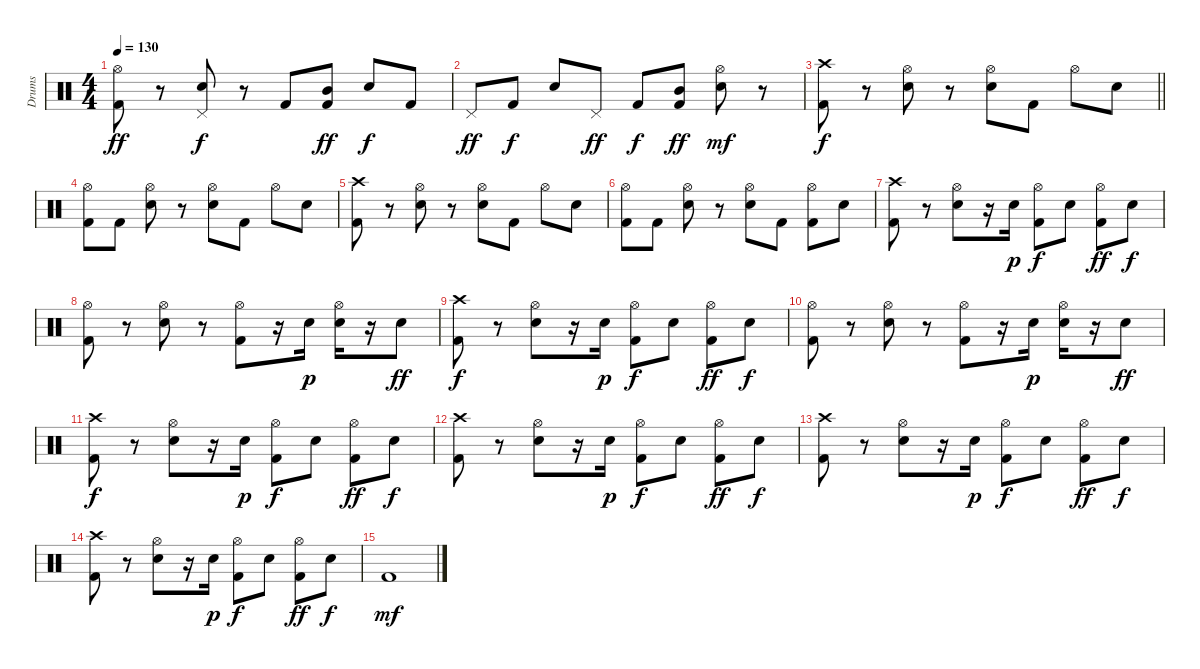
\track ("Drums" "Drums") {instrument percussion}
\staff {score}
\articulation defaults
\ts (4 4)
\tempo 130
\clef neutral
\ks c
("Hi-Hat (open)" "Kick (hit) 2").8{dy ff} r.8 ("Pedal Hi-Hat (hit)" "Snare (hit) 2").8{dy f} r.8 "Kick (hit) 2".8 ("Mid Tom (hit)" "Kick (hit) 2").8{dy ff} "Snare (hit) 2".8{dy f} "Kick (hit) 2".8 |
"Pedal Hi-Hat (hit)".8{dy ff} "Kick (hit) 2".8{dy f} "Snare (hit) 2".8 "Pedal Hi-Hat (hit)".8{dy ff} "Kick (hit) 2".8{dy f} ("Mid Tom (hit)" "Kick (hit) 2").8{dy ff} ("Hi-Hat (open)" "Snare (hit) 2").8{dy mf} r.8 |
\barLineRight lightlight
("Crash high (hit)" "Kick (hit) 2").8{dy f} r.8 ("Hi-Hat (open)" "Snare (hit) 2").8 r.8 ("Hi-Hat (open)" "Snare (hit) 2").8 "Kick (hit) 2".8 "Hi-Hat (open)".8 "Snare (hit) 2".8 |
("Hi-Hat (open)" "Kick (hit) 2").8 "Kick (hit) 2".8 ("Hi-Hat (open)" "Snare (hit) 2").8 r.8 ("Hi-Hat (open)" "Snare (hit) 2").8 "Kick (hit) 2".8 "Hi-Hat (open)".8 "Snare (hit) 2".8 |
("Crash high (hit)" "Kick (hit) 2").8 r.8 ("Hi-Hat (open)" "Snare (hit) 2").8 r.8 ("Hi-Hat (open)" "Snare (hit) 2").8 "Kick (hit) 2".8 "Hi-Hat (open)".8 "Snare (hit) 2".8 |
("Hi-Hat (open)" "Kick (hit) 2").8 "Kick (hit) 2".8 ("Hi-Hat (open)" "Snare (hit) 2").8 r.8 ("Hi-Hat (open)" "Snare (hit) 2").8 "Kick (hit) 2".8 ("Hi-Hat (open)" "Kick (hit) 2").8 "Snare (hit) 2".8 |
("Crash high (hit)" "Kick (hit) 2").8 r.8 ("Hi-Hat (open)" "Snare (hit) 2").8 r.16 "Snare (hit) 2".16{dy p} ("Hi-Hat (open)" "Kick (hit) 2").8{dy f} "Snare (hit) 2".8 ("Hi-Hat (open)" "Kick (hit) 2").8{dy ff} "Snare (hit) 2".8{dy f} |
("Hi-Hat (open)" "Kick (hit) 2").8 r.8 ("Hi-Hat (open)" "Snare (hit) 2").8 r.8 ("Hi-Hat (open)" "Kick (hit) 2").8 r.16 "Snare (hit) 2".16{dy p} ("Hi-Hat (open)" "Snare (hit) 2").16 r.16 "Snare (hit) 2".8{dy ff} |
("Crash high (hit)" "Kick (hit) 2").8{dy f} r.8 ("Hi-Hat (open)" "Snare (hit) 2").8 r.16 "Snare (hit) 2".16{dy p} ("Hi-Hat (open)" "Kick (hit) 2").8{dy f} "Snare (hit) 2".8 ("Hi-Hat (open)" "Kick (hit) 2").8{dy ff} "Snare (hit) 2".8{dy f} |
("Hi-Hat (open)" "Kick (hit) 2").8 r.8 ("Hi-Hat (open)" "Snare (hit) 2").8 r.8 ("Hi-Hat (open)" "Kick (hit) 2").8 r.16 "Snare (hit) 2".16{dy p} ("Hi-Hat (open)" "Snare (hit) 2").16 r.16 "Snare (hit) 2".8{dy ff} |
("Crash high (hit)" "Kick (hit) 2").8{dy f} r.8 ("Hi-Hat (open)" "Snare (hit) 2").8 r.16 "Snare (hit) 2".16{dy p} ("Hi-Hat (open)" "Kick (hit) 2").8{dy f} "Snare (hit) 2".8 ("Hi-Hat (open)" "Kick (hit) 2").8{dy ff} "Snare (hit) 2".8{dy f} |
("Crash high (hit)" "Kick (hit) 2").8 r.8 ("Hi-Hat (open)" "Snare (hit) 2").8 r.16 "Snare (hit) 2".16{dy p} ("Hi-Hat (open)" "Kick (hit) 2").8{dy f} "Snare (hit) 2".8 ("Hi-Hat (open)" "Kick (hit) 2").8{dy ff} "Snare (hit) 2".8{dy f} |
("Crash high (hit)" "Kick (hit) 2").8 r.8 ("Hi-Hat (open)" "Snare (hit) 2").8 r.16 "Snare (hit) 2".16{dy p} ("Hi-Hat (open)" "Kick (hit) 2").8{dy f} "Snare (hit) 2".8 ("Hi-Hat (open)" "Kick (hit) 2").8{dy ff} "Snare (hit) 2".8{dy f} |
("Crash high (hit)" "Kick (hit) 2").8 r.8 ("Hi-Hat (open)" "Snare (hit) 2").8 r.16 "Snare (hit) 2".16{dy p} ("Hi-Hat (open)" "Kick (hit) 2").8{dy f} "Snare (hit) 2".8 ("Hi-Hat (open)" "Kick (hit) 2").8{dy ff} "Snare (hit) 2".8{dy f} |
"Kick (hit) 2".1{dy mf}
